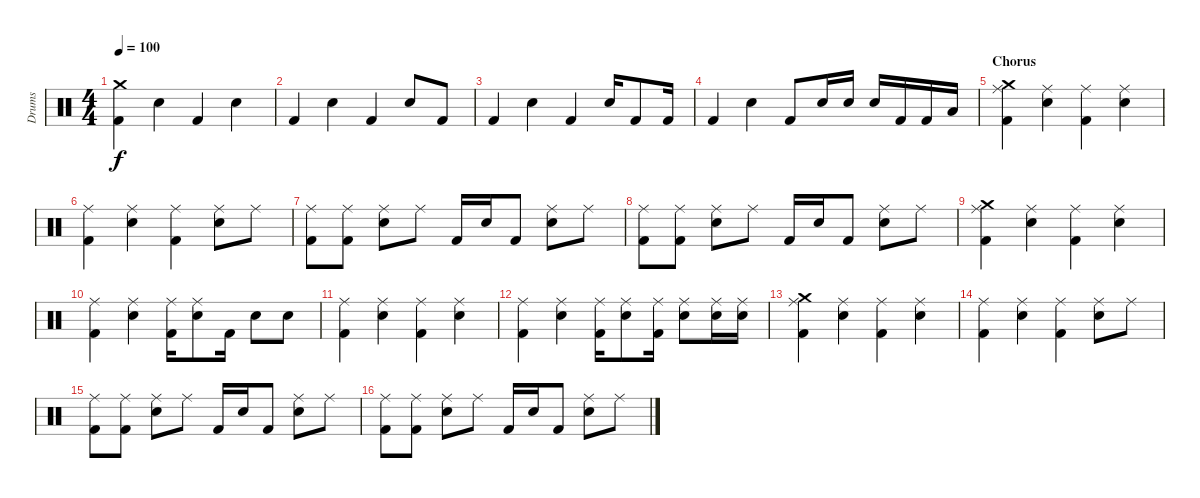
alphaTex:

\track ("Drums" "Drums") {instrument percussion}
\staff {score}
\articulation defaults
\ts (4 4)
\tempo 100
\clef neutral
\ks c
("Kick (hit) 2" "Crash medium (hit)").4{dy f} "Snare (hit) 2".4 "Kick (hit) 2".4 "Snare (hit) 2".4 |
"Kick (hit) 2".4 "Snare (hit) 2".4 "Kick (hit) 2".4 "Snare (hit) 2".8 "Kick (hit) 2".8 |
"Kick (hit) 2".4 "Snare (hit) 2".4 "Kick (hit) 2".4 "Snare (hit) 2".16 "Kick (hit) 2".8 "Kick (hit) 2".16 |
"Kick (hit) 2".4 "Snare (hit) 2".4 "Kick (hit) 2".8 "Snare (hit) 2".16 "Snare (hit) 2".16 "Snare (hit) 2".16 "Kick (hit) 2".16 "Kick (hit) 2".16 "Low Floor Tom (hit)".16 |
\section ("" "Chorus")
("Kick (hit) 2" "Ride (middle)" "Crash medium (hit)").4 ("Snare (hit) 2" "Ride (middle)").4 ("Kick (hit) 2" "Ride (middle)").4 ("Snare (hit) 2" "Ride (middle)").4 |
("Kick (hit) 2" "Ride (middle)").4 ("Snare (hit) 2" "Ride (middle)").4 ("Kick (hit) 2" "Ride (middle)").4 ("Snare (hit) 2" "Ride (middle)").8 "Ride (middle)".8 |
("Kick (hit) 2" "Ride (middle)").8 ("Kick (hit) 2" "Ride (middle)").8 ("Snare (hit) 2" "Ride (middle)").8 "Ride (middle)".8 "Kick (hit) 2".16 "Snare (hit) 2".16 "Kick (hit) 2".8 ("Snare (hit) 2" "Ride (middle)").8 "Ride (middle)".8 |
("Kick (hit) 2" "Ride (middle)").8 ("Kick (hit) 2" "Ride (middle)").8 ("Snare (hit) 2" "Ride (middle)").8 "Ride (middle)".8 "Kick (hit) 2".16 "Snare (hit) 2".16 "Kick (hit) 2".8 ("Snare (hit) 2" "Ride (middle)").8 "Ride (middle)".8 |
("Kick (hit) 2" "Ride (middle)" "Crash medium (hit)").4 ("Snare (hit) 2" "Ride (middle)").4 ("Kick (hit) 2" "Ride (middle)").4 ("Snare (hit) 2" "Ride (middle)").4 |
("Kick (hit) 2" "Ride (middle)").4 ("Snare (hit) 2" "Ride (middle)").4 ("Kick (hit) 2" "Ride (middle)").16 ("Snare (hit) 2" "Ride (middle)").8 "Kick (hit) 2".16 "Snare (hit) 2".8 "Snare (hit) 2".8 |
("Kick (hit) 2" "Ride (middle)").4 ("Snare (hit) 2" "Ride (middle)").4 ("Kick (hit) 2" "Ride (middle)").4 ("Snare (hit) 2" "Ride (middle)").4 |
("Kick (hit) 2" "Ride (middle)").4 ("Snare (hit) 2" "Ride (middle)").4 ("Kick (hit) 2" "Ride (middle)").16 ("Snare (hit) 2" "Ride (middle)").8 ("Kick (hit) 2" "Ride (middle)").16 ("Snare (hit) 2" "Ride (middle)").8 ("Snare (hit) 2" "Ride (middle)").16 ("Snare (hit) 2" "Ride (middle)").16 |
("Kick (hit) 2" "Ride (middle)" "Crash medium (hit)").4 ("Snare (hit) 2" "Ride (middle)").4 ("Kick (hit) 2" "Ride (middle)").4 ("Snare (hit) 2" "Ride (middle)").4 |
("Kick (hit) 2" "Ride (middle)").4 ("Snare (hit) 2" "Ride (middle)").4 ("Kick (hit) 2" "Ride (middle)").4 ("Snare (hit) 2" "Ride (middle)").8 "Ride (middle)".8 |
("Kick (hit) 2" "Ride (middle)").8 ("Kick (hit) 2" "Ride (middle)").8 ("Snare (hit) 2" "Ride (middle)").8 "Ride (middle)".8 "Kick (hit) 2".16 "Snare (hit) 2".16 "Kick (hit) 2".8 ("Snare (hit) 2" "Ride (middle)").8 "Ride (middle)".8 |
("Kick (hit) 2" "Ride (middle)").8 ("Kick (hit) 2" "Ride (middle)").8 ("Snare (hit) 2" "Ride (middle)").8 "Ride (middle)".8 "Kick (hit) 2".16 "Snare (hit) 2".16 "Kick (hit) 2".8 ("Snare (hit) 2" "Ride (middle)").8 "Ride (middle)".8
